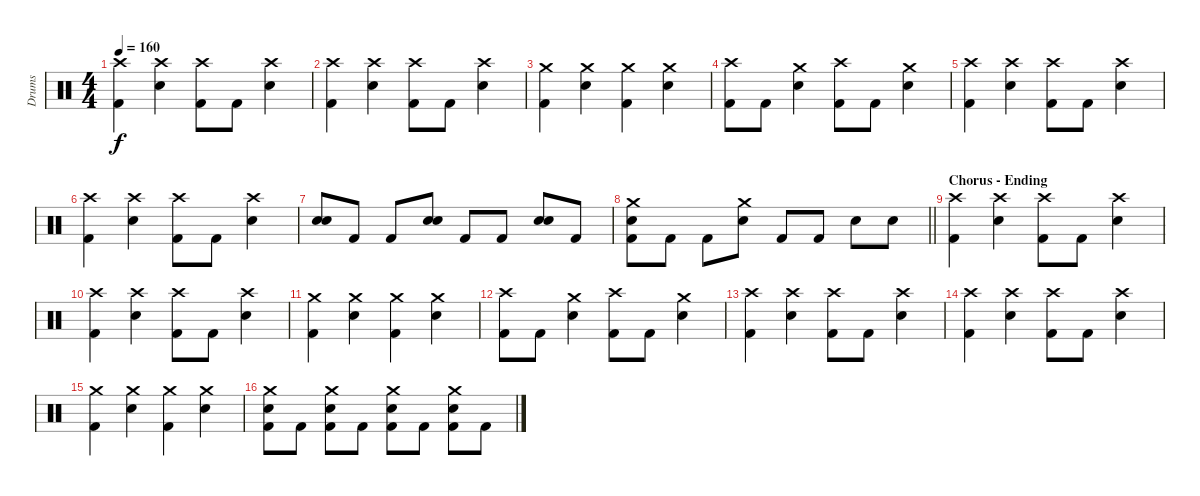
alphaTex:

\track ("Drums " "Drums ") {instrument percussion}
\staff {score}
\articulation defaults
\ts (4 4)
\tempo 160
\clef neutral
\ks c
("Crash high (hit)" "Kick (hit) 2").4{dy f} ("Crash high (hit)" "Snare (hit) 2").4 ("Crash high (hit)" "Kick (hit) 2").8 "Kick (hit) 2".8 ("Crash high (hit)" "Snare (hit) 2").4 |
("Crash high (hit)" "Kick (hit) 2").4 ("Crash high (hit)" "Snare (hit) 2").4 ("Crash high (hit)" "Kick (hit) 2").8 "Kick (hit) 2".8 ("Crash high (hit)" "Snare (hit) 2").4 |
("Crash medium (hit)" "Kick (hit) 2").4 ("Crash medium (hit)" "Snare (hit) 2").4 ("Crash medium (hit)" "Kick (hit) 2").4 ("Crash medium (hit)" "Snare (hit) 2").4 |
("Crash high (hit)" "Kick (hit) 2").8 "Kick (hit) 2".8 ("Crash medium (hit)" "Snare (hit) 2").4 ("Crash high (hit)" "Kick (hit) 2").8 "Kick (hit) 2".8 ("Crash medium (hit)" "Snare (hit) 2").4 |
("Crash high (hit)" "Kick (hit) 2").4 ("Crash high (hit)" "Snare (hit) 2").4 ("Crash high (hit)" "Kick (hit) 2").8 "Kick (hit) 2".8 ("Crash high (hit)" "Snare (hit) 2").4 |
("Crash high (hit)" "Kick (hit) 2").4 ("Crash high (hit)" "Snare (hit) 2").4 ("Crash high (hit)" "Kick (hit) 2").8 "Kick (hit) 2".8 ("Crash high (hit)" "Snare (hit) 2").4 |
("Snare (hit) 2" "Snare (hit) 2").8 "Kick (hit) 2".8 "Kick (hit) 2".8 ("Snare (hit) 2" "Snare (hit) 2").8 "Kick (hit) 2".8 "Kick (hit) 2".8 ("Snare (hit) 2" "Snare (hit) 2").8 "Kick (hit) 2".8 |
\barLineRight lightlight
("Crash medium (hit)" "Snare (hit) 2" "Kick (hit) 2").8 "Kick (hit) 2".8 "Kick (hit) 2".8 ("Crash medium (hit)" "Snare (hit) 2").8 "Kick (hit) 2".8 "Kick (hit) 2".8 "Snare (hit) 2".8 "Snare (hit) 2".8 |
\section ("" "Chorus - Ending")
("Crash high (hit)" "Kick (hit) 2").4 ("Crash high (hit)" "Snare (hit) 2").4 ("Crash high (hit)" "Kick (hit) 2").8 "Kick (hit) 2".8 ("Crash high (hit)" "Snare (hit) 2").4 |
("Crash high (hit)" "Kick (hit) 2").4 ("Crash high (hit)" "Snare (hit) 2").4 ("Crash high (hit)" "Kick (hit) 2").8 "Kick (hit) 2".8 ("Crash high (hit)" "Snare (hit) 2").4 |
("Crash medium (hit)" "Kick (hit) 2").4 ("Crash medium (hit)" "Snare (hit) 2").4 ("Crash medium (hit)" "Kick (hit) 2").4 ("Crash medium (hit)" "Snare (hit) 2").4 |
("Crash high (hit)" "Kick (hit) 2").8 "Kick (hit) 2".8 ("Crash medium (hit)" "Snare (hit) 2").4 ("Crash high (hit)" "Kick (hit) 2").8 "Kick (hit) 2".8 ("Crash medium (hit)" "Snare (hit) 2").4 |
("Crash high (hit)" "Kick (hit) 2").4 ("Crash high (hit)" "Snare (hit) 2").4 ("Crash high (hit)" "Kick (hit) 2").8 "Kick (hit) 2".8 ("Crash high (hit)" "Snare (hit) 2").4 |
("Crash high (hit)" "Kick (hit) 2").4 ("Crash high (hit)" "Snare (hit) 2").4 ("Crash high (hit)" "Kick (hit) 2").8 "Kick (hit) 2".8 ("Crash high (hit)" "Snare (hit) 2").4 |
("Crash medium (hit)" "Kick (hit) 2").4 ("Crash medium (hit)" "Snare (hit) 2").4 ("Crash medium (hit)" "Kick (hit) 2").4 ("Crash medium (hit)" "Snare (hit) 2").4 |
("Crash medium (hit)" "Snare (hit) 2" "Kick (hit) 2").8 "Kick (hit) 2".8 ("Crash medium (hit)" "Snare (hit) 2" "Kick (hit) 2").8 "Kick (hit) 2".8 ("Crash medium (hit)" "Snare (hit) 2" "Kick (hit) 2").8 "Kick (hit) 2".8 ("Crash medium (hit)" "Snare (hit) 2" "Kick (hit) 2").8 "Kick (hit) 2".8
